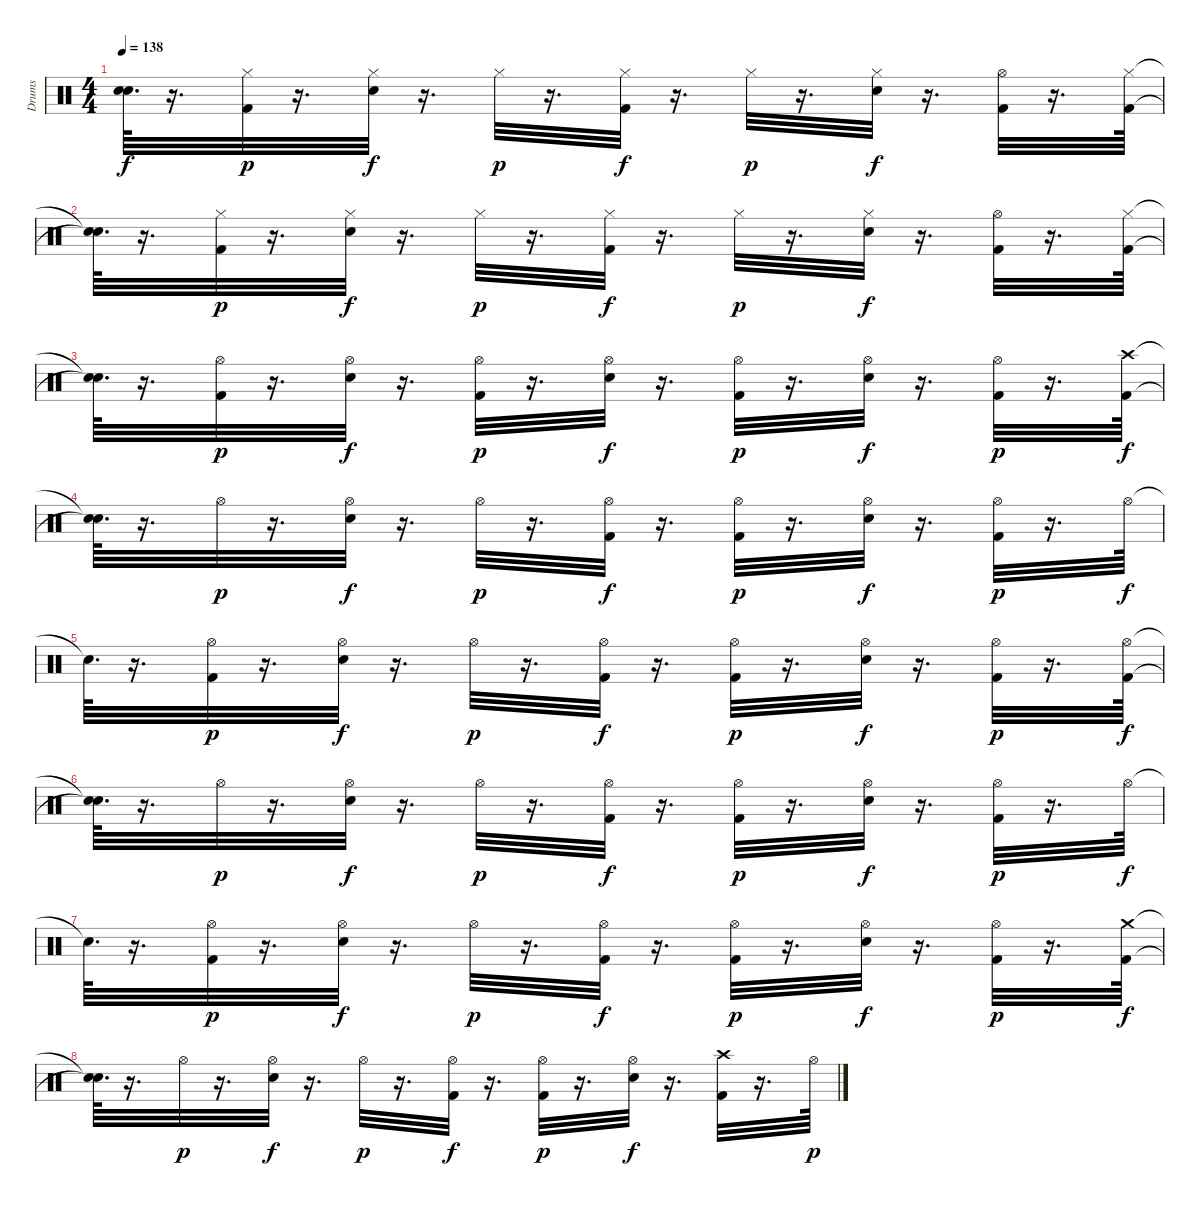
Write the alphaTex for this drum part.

\track ("Drums" "Drums") {instrument percussion}
\staff {score}
\articulation defaults
\ts (4 4)
\tempo 138
\clef neutral
\ks c
("Snare (hit)"{t} "Snare (hit)"{t}).64{d dy f} r.16{d} ("Hi-Hat (closed)" "Kick (hit) 2").32{dy p} r.16{d} ("Hi-Hat (closed)" "Electric Snare (hit)").32{dy f} r.16{d} "Hi-Hat (closed)".32{dy p} r.16{d} ("Hi-Hat (closed)" "Kick (hit) 2").32{dy f} r.16{d} "Hi-Hat (closed)".32{dy p} r.16{d} ("Hi-Hat (closed)" "Electric Snare (hit)").32{dy f} r.16{d} ("Hi-Hat (open)" "Kick (hit) 2").32 r.16{d} ("Hi-Hat (closed)" "Kick (hit) 2").64 |
("Snare (hit)"{t} "Snare (hit)"{t}).64{d} r.16{d} ("Hi-Hat (closed)" "Kick (hit) 2").32{dy p} r.16{d} ("Hi-Hat (closed)" "Electric Snare (hit)").32{dy f} r.16{d} "Hi-Hat (closed)".32{dy p} r.16{d} ("Hi-Hat (closed)" "Kick (hit) 2").32{dy f} r.16{d} "Hi-Hat (closed)".32{dy p} r.16{d} ("Hi-Hat (closed)" "Electric Snare (hit)").32{dy f} r.16{d} ("Hi-Hat (open)" "Kick (hit) 2").32 r.16{d} ("Hi-Hat (closed)" "Kick (hit) 2").64 |
("Snare (hit)"{t} "Snare (hit)"{t}).64{d} r.16{d} ("Hi-Hat (open)" "Kick (hit) 2").32{dy p} r.16{d} ("Hi-Hat (open)" "Electric Snare (hit)").32{dy f} r.16{d} ("Kick (hit) 2" "Hi-Hat (open)").32{dy p} r.16{d} ("Electric Snare (hit)" "Hi-Hat (open)").32{dy f} r.16{d} ("Kick (hit) 2" "Hi-Hat (open)").32{dy p} r.16{d} ("Hi-Hat (open)" "Electric Snare (hit)").32{dy f} r.16{d} ("Hi-Hat (open)" "Kick (hit) 2").32{dy p} r.16{d} ("Crash high (hit)" "Kick (hit) 2").64{dy f} |
("Snare (hit)"{t} "Snare (hit)"{t}).64{d} r.16{d} "Hi-Hat (open)".32{dy p} r.16{d} ("Hi-Hat (open)" "Electric Snare (hit)").32{dy f} r.16{d} "Hi-Hat (open)".32{dy p} r.16{d} ("Hi-Hat (open)" "Kick (hit) 2").32{dy f} r.16{d} ("Kick (hit) 2" "Hi-Hat (open)").32{dy p} r.16{d} ("Hi-Hat (open)" "Electric Snare (hit)").32{dy f} r.16{d} ("Kick (hit) 2" "Hi-Hat (open)").32{dy p} r.16{d} "Hi-Hat (open)".64{dy f} |
"Snare (hit)"{t}.64{d} r.16{d} ("Kick (hit) 2" "Hi-Hat (open)").32{dy p} r.16{d} ("Hi-Hat (open)" "Electric Snare (hit)").32{dy f} r.16{d} "Hi-Hat (open)".32{dy p} r.16{d} ("Hi-Hat (open)" "Kick (hit) 2").32{dy f} r.16{d} ("Kick (hit) 2" "Hi-Hat (open)").32{dy p} r.16{d} ("Hi-Hat (open)" "Electric Snare (hit)").32{dy f} r.16{d} ("Kick (hit) 2" "Hi-Hat (open)").32{dy p} r.16{d} ("Hi-Hat (open)" "Kick (hit) 2").64{dy f} |
("Snare (hit)"{t} "Snare (hit)"{t}).64{d} r.16{d} "Hi-Hat (open)".32{dy p} r.16{d} ("Hi-Hat (open)" "Electric Snare (hit)").32{dy f} r.16{d} "Hi-Hat (open)".32{dy p} r.16{d} ("Hi-Hat (open)" "Kick (hit) 2").32{dy f} r.16{d} ("Kick (hit) 2" "Hi-Hat (open)").32{dy p} r.16{d} ("Hi-Hat (open)" "Electric Snare (hit)").32{dy f} r.16{d} ("Kick (hit) 2" "Hi-Hat (open)").32{dy p} r.16{d} "Hi-Hat (open)".64{dy f} |
"Snare (hit)"{t}.64{d} r.16{d} ("Kick (hit) 2" "Hi-Hat (open)").32{dy p} r.16{d} ("Hi-Hat (open)" "Electric Snare (hit)").32{dy f} r.16{d} "Hi-Hat (open)".32{dy p} r.16{d} ("Hi-Hat (open)" "Kick (hit) 2").32{dy f} r.16{d} ("Kick (hit) 2" "Hi-Hat (open)").32{dy p} r.16{d} ("Hi-Hat (open)" "Electric Snare (hit)").32{dy f} r.16{d} ("Kick (hit) 2" "Hi-Hat (open)").32{dy p} r.16{d} ("Crash medium (hit)" "Kick (hit) 2").64{dy f} |
("Snare (hit)"{t} "Snare (hit)"{t}).64{d} r.16{d} "Hi-Hat (open)".32{dy p} r.16{d} ("Hi-Hat (open)" "Electric Snare (hit)").32{dy f} r.16{d} "Hi-Hat (open)".32{dy p} r.16{d} ("Hi-Hat (open)" "Kick (hit) 2").32{dy f} r.16{d} ("Hi-Hat (open)" "Kick (hit) 2").32{dy p} r.16{d} ("Hi-Hat (open)" "Electric Snare (hit)").32{dy f} r.16{d} ("Crash high (hit)" "Kick (hit) 2").32 r.16{d} "Hi-Hat (open)".64{dy p}
